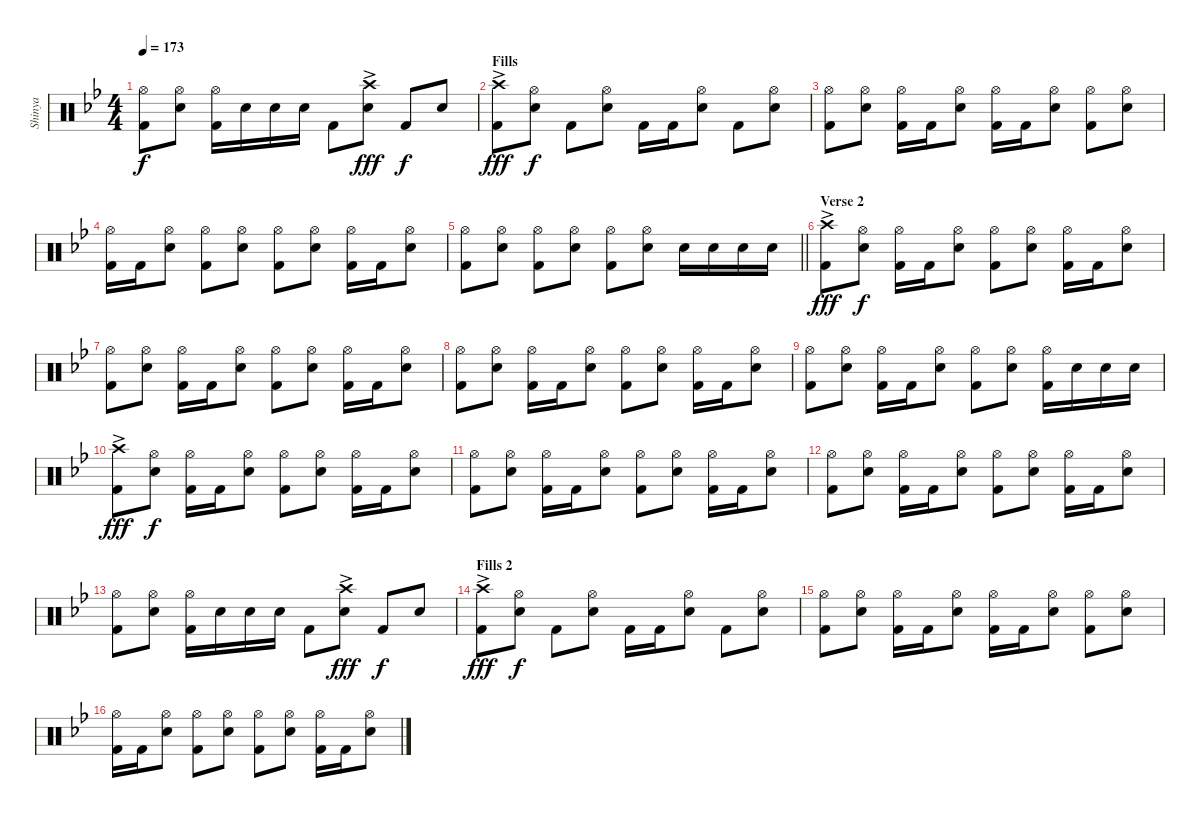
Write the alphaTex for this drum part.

\track ("Shinya" "Shinya") {instrument percussion}
\staff {score}
\articulation defaults
\ts (4 4)
\tempo 173
\clef neutral
\ks bb
("Hi-Hat (open)" "Kick (hit) 2").8{dy f} ("Hi-Hat (open)" "Snare (hit) 2").8 ("Hi-Hat (open)" "Kick (hit) 2").16 "Snare (hit) 2".16 "Snare (hit) 2".16 "Snare (hit) 2".16 "Kick (hit) 2".8 ("Crash high (hit)"{ac} "Snare (hit) 2").8{dy fff} "Kick (hit) 2".8{dy f} "Snare (hit) 2".8 |
\section ("" "Fills")
("Crash high (hit)"{ac} "Kick (hit) 2").8{dy fff} ("Hi-Hat (open)" "Snare (hit) 2").8{dy f} "Kick (hit) 2".8 ("Hi-Hat (open)" "Snare (hit) 2").8 "Kick (hit) 2".16 "Kick (hit) 2".16 ("Hi-Hat (open)" "Snare (hit) 2").8 "Kick (hit) 2".8 ("Hi-Hat (open)" "Snare (hit) 2").8 |
("Hi-Hat (open)" "Kick (hit) 2").8 ("Hi-Hat (open)" "Snare (hit) 2").8 ("Hi-Hat (open)" "Kick (hit) 2").16 "Kick (hit) 2".16 ("Hi-Hat (open)" "Snare (hit) 2").8 ("Hi-Hat (open)" "Kick (hit) 2").16 "Kick (hit) 2".16 ("Hi-Hat (open)" "Snare (hit) 2").8 ("Hi-Hat (open)" "Kick (hit) 2").8 ("Hi-Hat (open)" "Snare (hit) 2").8 |
("Hi-Hat (open)" "Kick (hit) 2").16 "Kick (hit) 2".16 ("Hi-Hat (open)" "Snare (hit) 2").8 ("Hi-Hat (open)" "Kick (hit) 2").8 ("Hi-Hat (open)" "Snare (hit) 2").8 ("Hi-Hat (open)" "Kick (hit) 2").8 ("Hi-Hat (open)" "Snare (hit) 2").8 ("Hi-Hat (open)" "Kick (hit) 2").16 "Kick (hit) 2".16 ("Hi-Hat (open)" "Snare (hit) 2").8 |
\barLineRight lightlight
("Hi-Hat (open)" "Kick (hit) 2").8 ("Hi-Hat (open)" "Snare (hit) 2").8 ("Hi-Hat (open)" "Kick (hit) 2").8 ("Hi-Hat (open)" "Snare (hit) 2").8 ("Hi-Hat (open)" "Kick (hit) 2").8 ("Hi-Hat (open)" "Snare (hit) 2").8 "Snare (hit) 2".16 "Snare (hit) 2".16 "Snare (hit) 2".16 "Snare (hit) 2".16 |
\section ("" "Verse 2")
("Crash high (hit)"{ac} "Kick (hit) 2").8{dy fff} ("Hi-Hat (open)" "Snare (hit) 2").8{dy f} ("Hi-Hat (open)" "Kick (hit) 2").16 "Kick (hit) 2".16 ("Hi-Hat (open)" "Snare (hit) 2").8 ("Hi-Hat (open)" "Kick (hit) 2").8 ("Hi-Hat (open)" "Snare (hit) 2").8 ("Hi-Hat (open)" "Kick (hit) 2").16 "Kick (hit) 2".16 ("Hi-Hat (open)" "Snare (hit) 2").8 |
("Hi-Hat (open)" "Kick (hit) 2").8 ("Hi-Hat (open)" "Snare (hit) 2").8 ("Hi-Hat (open)" "Kick (hit) 2").16 "Kick (hit) 2".16 ("Hi-Hat (open)" "Snare (hit) 2").8 ("Hi-Hat (open)" "Kick (hit) 2").8 ("Hi-Hat (open)" "Snare (hit) 2").8 ("Hi-Hat (open)" "Kick (hit) 2").16 "Kick (hit) 2".16 ("Hi-Hat (open)" "Snare (hit) 2").8 |
("Hi-Hat (open)" "Kick (hit) 2").8 ("Hi-Hat (open)" "Snare (hit) 2").8 ("Hi-Hat (open)" "Kick (hit) 2").16 "Kick (hit) 2".16 ("Hi-Hat (open)" "Snare (hit) 2").8 ("Hi-Hat (open)" "Kick (hit) 2").8 ("Hi-Hat (open)" "Snare (hit) 2").8 ("Hi-Hat (open)" "Kick (hit) 2").16 "Kick (hit) 2".16 ("Hi-Hat (open)" "Snare (hit) 2").8 |
("Hi-Hat (open)" "Kick (hit) 2").8 ("Hi-Hat (open)" "Snare (hit) 2").8 ("Hi-Hat (open)" "Kick (hit) 2").16 "Kick (hit) 2".16 ("Hi-Hat (open)" "Snare (hit) 2").8 ("Hi-Hat (open)" "Kick (hit) 2").8 ("Hi-Hat (open)" "Snare (hit) 2").8 ("Hi-Hat (open)" "Kick (hit) 2").16 "Snare (hit) 2".16 "Snare (hit) 2".16 "Snare (hit) 2".16 |
("Crash high (hit)"{ac} "Kick (hit) 2").8{dy fff} ("Hi-Hat (open)" "Snare (hit) 2").8{dy f} ("Hi-Hat (open)" "Kick (hit) 2").16 "Kick (hit) 2".16 ("Hi-Hat (open)" "Snare (hit) 2").8 ("Hi-Hat (open)" "Kick (hit) 2").8 ("Hi-Hat (open)" "Snare (hit) 2").8 ("Hi-Hat (open)" "Kick (hit) 2").16 "Kick (hit) 2".16 ("Hi-Hat (open)" "Snare (hit) 2").8 |
("Hi-Hat (open)" "Kick (hit) 2").8 ("Hi-Hat (open)" "Snare (hit) 2").8 ("Hi-Hat (open)" "Kick (hit) 2").16 "Kick (hit) 2".16 ("Hi-Hat (open)" "Snare (hit) 2").8 ("Hi-Hat (open)" "Kick (hit) 2").8 ("Hi-Hat (open)" "Snare (hit) 2").8 ("Hi-Hat (open)" "Kick (hit) 2").16 "Kick (hit) 2".16 ("Hi-Hat (open)" "Snare (hit) 2").8 |
("Hi-Hat (open)" "Kick (hit) 2").8 ("Hi-Hat (open)" "Snare (hit) 2").8 ("Hi-Hat (open)" "Kick (hit) 2").16 "Kick (hit) 2".16 ("Hi-Hat (open)" "Snare (hit) 2").8 ("Hi-Hat (open)" "Kick (hit) 2").8 ("Hi-Hat (open)" "Snare (hit) 2").8 ("Hi-Hat (open)" "Kick (hit) 2").16 "Kick (hit) 2".16 ("Hi-Hat (open)" "Snare (hit) 2").8 |
("Hi-Hat (open)" "Kick (hit) 2").8 ("Hi-Hat (open)" "Snare (hit) 2").8 ("Hi-Hat (open)" "Kick (hit) 2").16 "Snare (hit) 2".16 "Snare (hit) 2".16 "Snare (hit) 2".16 "Kick (hit) 2".8 ("Crash high (hit)"{ac} "Snare (hit) 2").8{dy fff} "Kick (hit) 2".8{dy f} "Snare (hit) 2".8 |
\section ("" "Fills 2")
("Crash high (hit)"{ac} "Kick (hit) 2").8{dy fff} ("Hi-Hat (open)" "Snare (hit) 2").8{dy f} "Kick (hit) 2".8 ("Hi-Hat (open)" "Snare (hit) 2").8 "Kick (hit) 2".16 "Kick (hit) 2".16 ("Hi-Hat (open)" "Snare (hit) 2").8 "Kick (hit) 2".8 ("Hi-Hat (open)" "Snare (hit) 2").8 |
("Hi-Hat (open)" "Kick (hit) 2").8 ("Hi-Hat (open)" "Snare (hit) 2").8 ("Hi-Hat (open)" "Kick (hit) 2").16 "Kick (hit) 2".16 ("Hi-Hat (open)" "Snare (hit) 2").8 ("Hi-Hat (open)" "Kick (hit) 2").16 "Kick (hit) 2".16 ("Hi-Hat (open)" "Snare (hit) 2").8 ("Hi-Hat (open)" "Kick (hit) 2").8 ("Hi-Hat (open)" "Snare (hit) 2").8 |
("Hi-Hat (open)" "Kick (hit) 2").16 "Kick (hit) 2".16 ("Hi-Hat (open)" "Snare (hit) 2").8 ("Hi-Hat (open)" "Kick (hit) 2").8 ("Hi-Hat (open)" "Snare (hit) 2").8 ("Hi-Hat (open)" "Kick (hit) 2").8 ("Hi-Hat (open)" "Snare (hit) 2").8 ("Hi-Hat (open)" "Kick (hit) 2").16 "Kick (hit) 2".16 ("Hi-Hat (open)" "Snare (hit) 2").8
